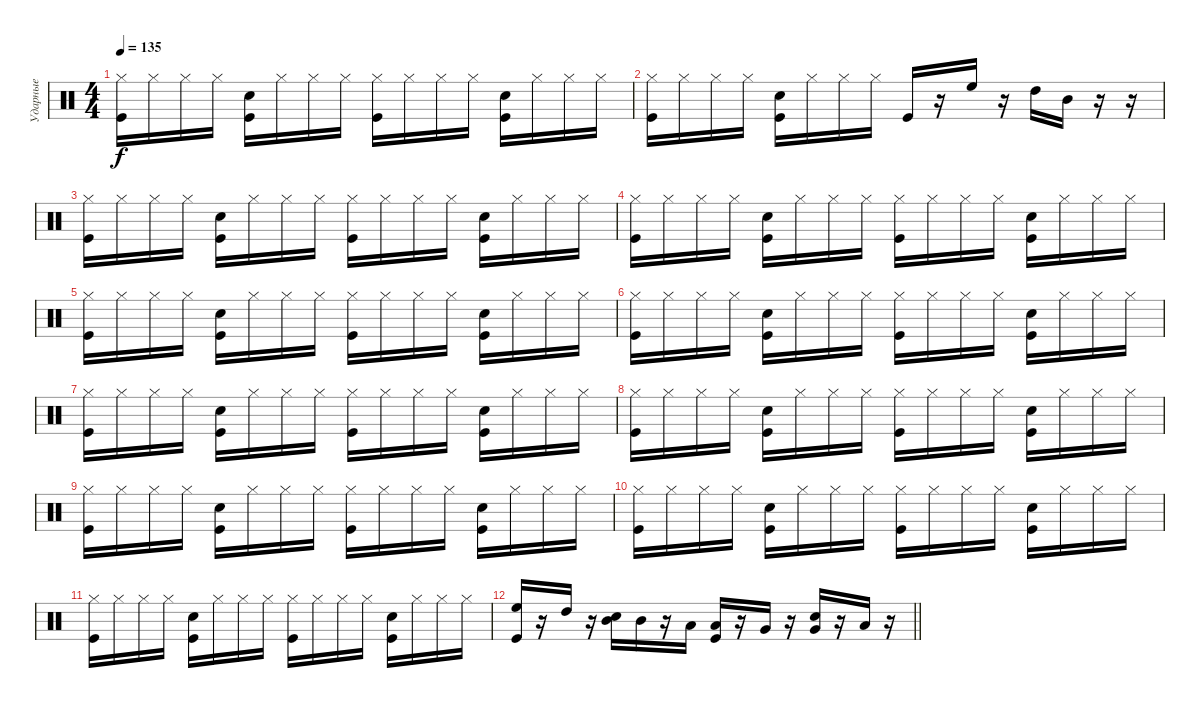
\track ("Ударные" "Ударные") {instrument percussion}
\staff {score}
\articulation defaults
\ts (4 4)
\tempo 135
\clef neutral
\ks c
("Hi-Hat (closed)" "Kick (hit)").16{dy f} "Hi-Hat (closed)".16 "Hi-Hat (closed)".16 "Hi-Hat (closed)".16 ("Kick (hit)" "Snare (hit) 2").16 "Hi-Hat (closed)".16 "Hi-Hat (closed)".16 "Hi-Hat (closed)".16 ("Hi-Hat (closed)" "Kick (hit)").16 "Hi-Hat (closed)".16 "Hi-Hat (closed)".16 "Hi-Hat (closed)".16 ("Kick (hit)" "Snare (hit) 2").16 "Hi-Hat (closed)".16 "Hi-Hat (closed)".16 "Hi-Hat (closed)".16 |
("Hi-Hat (closed)" "Kick (hit)").16 "Hi-Hat (closed)".16 "Hi-Hat (closed)".16 "Hi-Hat (closed)".16 ("Kick (hit)" "Snare (hit) 2").16 "Hi-Hat (closed)".16 "Hi-Hat (closed)".16 "Hi-Hat (closed)".16 "Kick (hit)".16 r.16 "High Floor Tom (hit)".16 r.16 "High Tom (hit)".16 "Mid Tom (hit)".16 r.16 r.16 |
("Hi-Hat (closed)" "Kick (hit)").16 "Hi-Hat (closed)".16 "Hi-Hat (closed)".16 "Hi-Hat (closed)".16 ("Kick (hit)" "Snare (hit) 2").16 "Hi-Hat (closed)".16 "Hi-Hat (closed)".16 "Hi-Hat (closed)".16 ("Hi-Hat (closed)" "Kick (hit)").16 "Hi-Hat (closed)".16 "Hi-Hat (closed)".16 "Hi-Hat (closed)".16 ("Kick (hit)" "Snare (hit) 2").16 "Hi-Hat (closed)".16 "Hi-Hat (closed)".16 "Hi-Hat (closed)".16 |
("Hi-Hat (closed)" "Kick (hit)").16 "Hi-Hat (closed)".16 "Hi-Hat (closed)".16 "Hi-Hat (closed)".16 ("Kick (hit)" "Snare (hit) 2").16 "Hi-Hat (closed)".16 "Hi-Hat (closed)".16 "Hi-Hat (closed)".16 ("Hi-Hat (closed)" "Kick (hit)").16 "Hi-Hat (closed)".16 "Hi-Hat (closed)".16 "Hi-Hat (closed)".16 ("Kick (hit)" "Snare (hit) 2").16 "Hi-Hat (closed)".16 "Hi-Hat (closed)".16 "Hi-Hat (closed)".16 |
("Hi-Hat (closed)" "Kick (hit)").16 "Hi-Hat (closed)".16 "Hi-Hat (closed)".16 "Hi-Hat (closed)".16 ("Kick (hit)" "Snare (hit) 2").16 "Hi-Hat (closed)".16 "Hi-Hat (closed)".16 "Hi-Hat (closed)".16 ("Hi-Hat (closed)" "Kick (hit)").16 "Hi-Hat (closed)".16 "Hi-Hat (closed)".16 "Hi-Hat (closed)".16 ("Kick (hit)" "Snare (hit) 2").16 "Hi-Hat (closed)".16 "Hi-Hat (closed)".16 "Hi-Hat (closed)".16 |
("Hi-Hat (closed)" "Kick (hit)").16 "Hi-Hat (closed)".16 "Hi-Hat (closed)".16 "Hi-Hat (closed)".16 ("Kick (hit)" "Snare (hit) 2").16 "Hi-Hat (closed)".16 "Hi-Hat (closed)".16 "Hi-Hat (closed)".16 ("Hi-Hat (closed)" "Kick (hit)").16 "Hi-Hat (closed)".16 "Hi-Hat (closed)".16 "Hi-Hat (closed)".16 ("Kick (hit)" "Snare (hit) 2").16 "Hi-Hat (closed)".16 "Hi-Hat (closed)".16 "Hi-Hat (closed)".16 |
("Hi-Hat (closed)" "Kick (hit)").16 "Hi-Hat (closed)".16 "Hi-Hat (closed)".16 "Hi-Hat (closed)".16 ("Kick (hit)" "Snare (hit) 2").16 "Hi-Hat (closed)".16 "Hi-Hat (closed)".16 "Hi-Hat (closed)".16 ("Hi-Hat (closed)" "Kick (hit)").16 "Hi-Hat (closed)".16 "Hi-Hat (closed)".16 "Hi-Hat (closed)".16 ("Kick (hit)" "Snare (hit) 2").16 "Hi-Hat (closed)".16 "Hi-Hat (closed)".16 "Hi-Hat (closed)".16 |
("Hi-Hat (closed)" "Kick (hit)").16 "Hi-Hat (closed)".16 "Hi-Hat (closed)".16 "Hi-Hat (closed)".16 ("Kick (hit)" "Snare (hit) 2").16 "Hi-Hat (closed)".16 "Hi-Hat (closed)".16 "Hi-Hat (closed)".16 ("Hi-Hat (closed)" "Kick (hit)").16 "Hi-Hat (closed)".16 "Hi-Hat (closed)".16 "Hi-Hat (closed)".16 ("Kick (hit)" "Snare (hit) 2").16 "Hi-Hat (closed)".16 "Hi-Hat (closed)".16 "Hi-Hat (closed)".16 |
("Hi-Hat (closed)" "Kick (hit)").16 "Hi-Hat (closed)".16 "Hi-Hat (closed)".16 "Hi-Hat (closed)".16 ("Kick (hit)" "Snare (hit) 2").16 "Hi-Hat (closed)".16 "Hi-Hat (closed)".16 "Hi-Hat (closed)".16 ("Hi-Hat (closed)" "Kick (hit)").16 "Hi-Hat (closed)".16 "Hi-Hat (closed)".16 "Hi-Hat (closed)".16 ("Kick (hit)" "Snare (hit) 2").16 "Hi-Hat (closed)".16 "Hi-Hat (closed)".16 "Hi-Hat (closed)".16 |
("Hi-Hat (closed)" "Kick (hit)").16 "Hi-Hat (closed)".16 "Hi-Hat (closed)".16 "Hi-Hat (closed)".16 ("Kick (hit)" "Snare (hit) 2").16 "Hi-Hat (closed)".16 "Hi-Hat (closed)".16 "Hi-Hat (closed)".16 ("Hi-Hat (closed)" "Kick (hit)").16 "Hi-Hat (closed)".16 "Hi-Hat (closed)".16 "Hi-Hat (closed)".16 ("Kick (hit)" "Snare (hit) 2").16 "Hi-Hat (closed)".16 "Hi-Hat (closed)".16 "Hi-Hat (closed)".16 |
("Hi-Hat (closed)" "Kick (hit)").16 "Hi-Hat (closed)".16 "Hi-Hat (closed)".16 "Hi-Hat (closed)".16 ("Kick (hit)" "Snare (hit) 2").16 "Hi-Hat (closed)".16 "Hi-Hat (closed)".16 "Hi-Hat (closed)".16 ("Hi-Hat (closed)" "Kick (hit)").16 "Hi-Hat (closed)".16 "Hi-Hat (closed)".16 "Hi-Hat (closed)".16 ("Kick (hit)" "Snare (hit) 2").16 "Hi-Hat (closed)".16 "Hi-Hat (closed)".16 "Hi-Hat (closed)".16 |
\barLineRight lightlight
("Kick (hit)" "High Floor Tom (hit)").16 r.16 "High Tom (hit)".16 r.16 ("Snare (hit) 2" "Mid Tom (hit)").16 "Mid Tom (hit)".16 r.16 "Low Tom (hit)".16 ("Kick (hit)" "Low Tom (hit)").16 r.16 "Very Low Tom (hit)".16 r.16 ("Very Low Tom (hit)" "Snare (hit) 2").16 r.16 "Low Floor Tom (hit)".16 r.16
